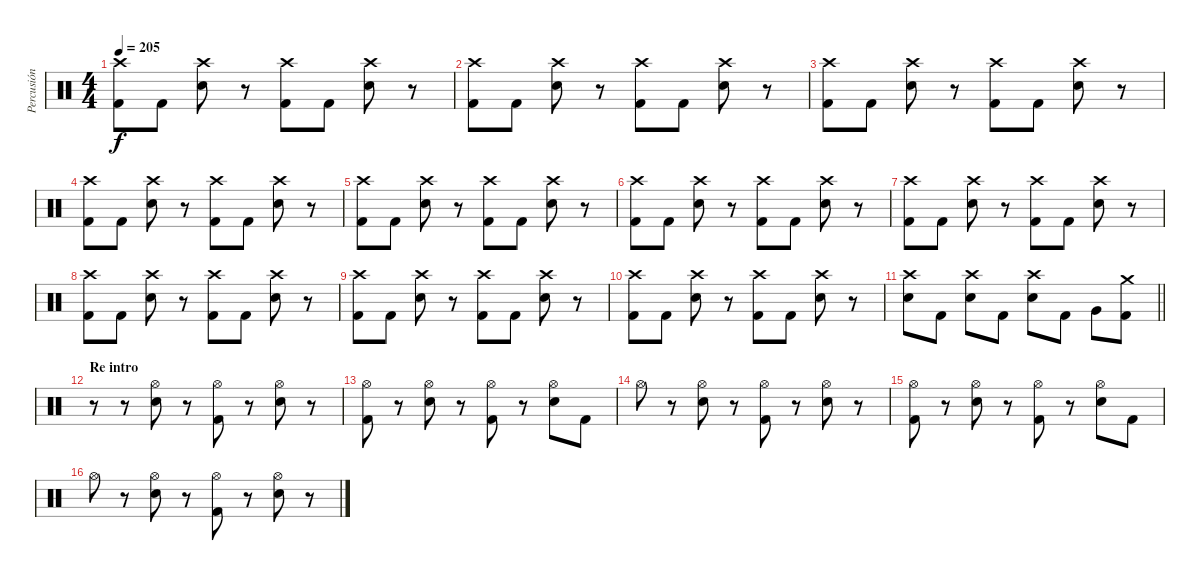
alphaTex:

\track ("Percusión" "Percusión") {instrument percussion}
\staff {score}
\articulation defaults
\ts (4 4)
\tempo 205
\clef neutral
\ks c
("Crash high (hit)" "Kick (hit) 2").8{dy f} "Kick (hit) 2".8 ("Crash high (hit)" "Electric Snare (hit)").8 r.8 ("Crash high (hit)" "Kick (hit) 2").8 "Kick (hit) 2".8 ("Crash high (hit)" "Electric Snare (hit)").8 r.8 |
("Crash high (hit)" "Kick (hit) 2").8 "Kick (hit) 2".8 ("Crash high (hit)" "Electric Snare (hit)").8 r.8 ("Crash high (hit)" "Kick (hit) 2").8 "Kick (hit) 2".8 ("Crash high (hit)" "Electric Snare (hit)").8 r.8 |
("Crash high (hit)" "Kick (hit) 2").8 "Kick (hit) 2".8 ("Crash high (hit)" "Electric Snare (hit)").8 r.8 ("Crash high (hit)" "Kick (hit) 2").8 "Kick (hit) 2".8 ("Crash high (hit)" "Electric Snare (hit)").8 r.8 |
("Crash high (hit)" "Kick (hit) 2").8 "Kick (hit) 2".8 ("Crash high (hit)" "Electric Snare (hit)").8 r.8 ("Crash high (hit)" "Kick (hit) 2").8 "Kick (hit) 2".8 ("Crash high (hit)" "Electric Snare (hit)").8 r.8 |
("Crash high (hit)" "Kick (hit) 2").8 "Kick (hit) 2".8 ("Crash high (hit)" "Electric Snare (hit)").8 r.8 ("Crash high (hit)" "Kick (hit) 2").8 "Kick (hit) 2".8 ("Crash high (hit)" "Electric Snare (hit)").8 r.8 |
("Crash high (hit)" "Kick (hit) 2").8 "Kick (hit) 2".8 ("Crash high (hit)" "Electric Snare (hit)").8 r.8 ("Crash high (hit)" "Kick (hit) 2").8 "Kick (hit) 2".8 ("Crash high (hit)" "Electric Snare (hit)").8 r.8 |
("Crash high (hit)" "Kick (hit) 2").8 "Kick (hit) 2".8 ("Crash high (hit)" "Electric Snare (hit)").8 r.8 ("Crash high (hit)" "Kick (hit) 2").8 "Kick (hit) 2".8 ("Crash high (hit)" "Electric Snare (hit)").8 r.8 |
("Crash high (hit)" "Kick (hit) 2").8 "Kick (hit) 2".8 ("Crash high (hit)" "Electric Snare (hit)").8 r.8 ("Crash high (hit)" "Kick (hit) 2").8 "Kick (hit) 2".8 ("Crash high (hit)" "Electric Snare (hit)").8 r.8 |
("Crash high (hit)" "Kick (hit) 2").8 "Kick (hit) 2".8 ("Crash high (hit)" "Electric Snare (hit)").8 r.8 ("Crash high (hit)" "Kick (hit) 2").8 "Kick (hit) 2".8 ("Crash high (hit)" "Electric Snare (hit)").8 r.8 |
("Crash high (hit)" "Kick (hit) 2").8 "Kick (hit) 2".8 ("Crash high (hit)" "Electric Snare (hit)").8 r.8 ("Crash high (hit)" "Kick (hit) 2").8 "Kick (hit) 2".8 ("Crash high (hit)" "Electric Snare (hit)").8 r.8 |
\barLineRight lightlight
("Crash high (hit)" "Electric Snare (hit)").8 "Kick (hit) 2".8 ("Crash high (hit)" "Electric Snare (hit)").8 "Kick (hit) 2".8 ("Crash high (hit)" "Electric Snare (hit)").8 "Kick (hit) 2".8 "Very Low Tom (hit)".8 ("Crash medium (hit)" "Kick (hit) 2").8 |
\section ("" "Re intro")
r.8 r.8 ("Hi-Hat (open)" "Electric Snare (hit)").8 r.8 ("Hi-Hat (open)" "Kick (hit) 2").8 r.8 ("Hi-Hat (open)" "Electric Snare (hit)").8 r.8 |
("Hi-Hat (open)" "Kick (hit) 2").8 r.8 ("Hi-Hat (open)" "Electric Snare (hit)").8 r.8 ("Hi-Hat (open)" "Kick (hit) 2").8 r.8 ("Hi-Hat (open)" "Electric Snare (hit)").8 "Kick (hit) 2".8 |
"Hi-Hat (open)".8 r.8 ("Hi-Hat (open)" "Electric Snare (hit)").8 r.8 ("Hi-Hat (open)" "Kick (hit) 2").8 r.8 ("Hi-Hat (open)" "Electric Snare (hit)").8 r.8 |
("Hi-Hat (open)" "Kick (hit) 2").8 r.8 ("Hi-Hat (open)" "Electric Snare (hit)").8 r.8 ("Hi-Hat (open)" "Kick (hit) 2").8 r.8 ("Hi-Hat (open)" "Electric Snare (hit)").8 "Kick (hit) 2".8 |
"Hi-Hat (open)".8 r.8 ("Hi-Hat (open)" "Electric Snare (hit)").8 r.8 ("Hi-Hat (open)" "Kick (hit) 2").8 r.8 ("Hi-Hat (open)" "Electric Snare (hit)").8 r.8
